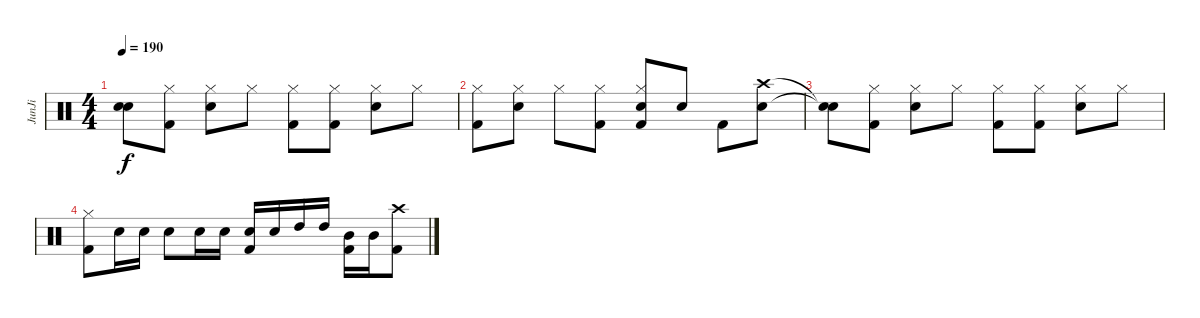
\track ("JunJi" "JunJi") {instrument percussion}
\staff {score}
\articulation defaults
\ts (4 4)
\tempo 190
\clef neutral
\ks c
("Snare (hit)"{t} "Snare (hit)"{t}).8{dy f volume 6} ("Hi-Hat (closed)" "Kick (hit) 2").8 ("Hi-Hat (closed)" "Snare (hit) 2").8 "Hi-Hat (closed)".8 ("Hi-Hat (closed)" "Kick (hit) 2").8 ("Hi-Hat (closed)" "Kick (hit) 2").8 ("Hi-Hat (closed)" "Snare (hit) 2").8 "Hi-Hat (closed)".8 |
("Hi-Hat (closed)" "Kick (hit) 2").8 ("Hi-Hat (closed)" "Snare (hit) 2").8 "Hi-Hat (closed)".8 ("Hi-Hat (closed)" "Kick (hit) 2").8 ("Hi-Hat (closed)" "Snare (hit) 2" "Kick (hit) 2").8 "Snare (hit) 2".8 "Kick (hit) 2".8 ("Crash high (hit)" "Snare (hit) 2").8 |
("Snare (hit)"{t} "Snare (hit)"{t}).8{volume 4} ("Hi-Hat (closed)" "Kick (hit) 2").8 ("Hi-Hat (closed)" "Snare (hit) 2").8 "Hi-Hat (closed)".8 ("Hi-Hat (closed)" "Kick (hit) 2").8 ("Hi-Hat (closed)" "Kick (hit) 2").8 ("Hi-Hat (closed)" "Snare (hit) 2").8 "Hi-Hat (closed)".8 |
("Hi-Hat (closed)" "Kick (hit) 2").8{volume 2} "Snare (hit) 2".16 "Snare (hit) 2".16 "Snare (hit) 2".8 "Snare (hit) 2".16 "Snare (hit) 2".16 ("Snare (hit) 2" "Kick (hit) 2").16 "Snare (hit) 2".16 "High Tom (hit)".16 "High Tom (hit)".16 ("Mid Tom (hit)" "Kick (hit) 2").16 "Mid Tom (hit)".16 ("Crash high (hit)" "Kick (hit) 2").8
